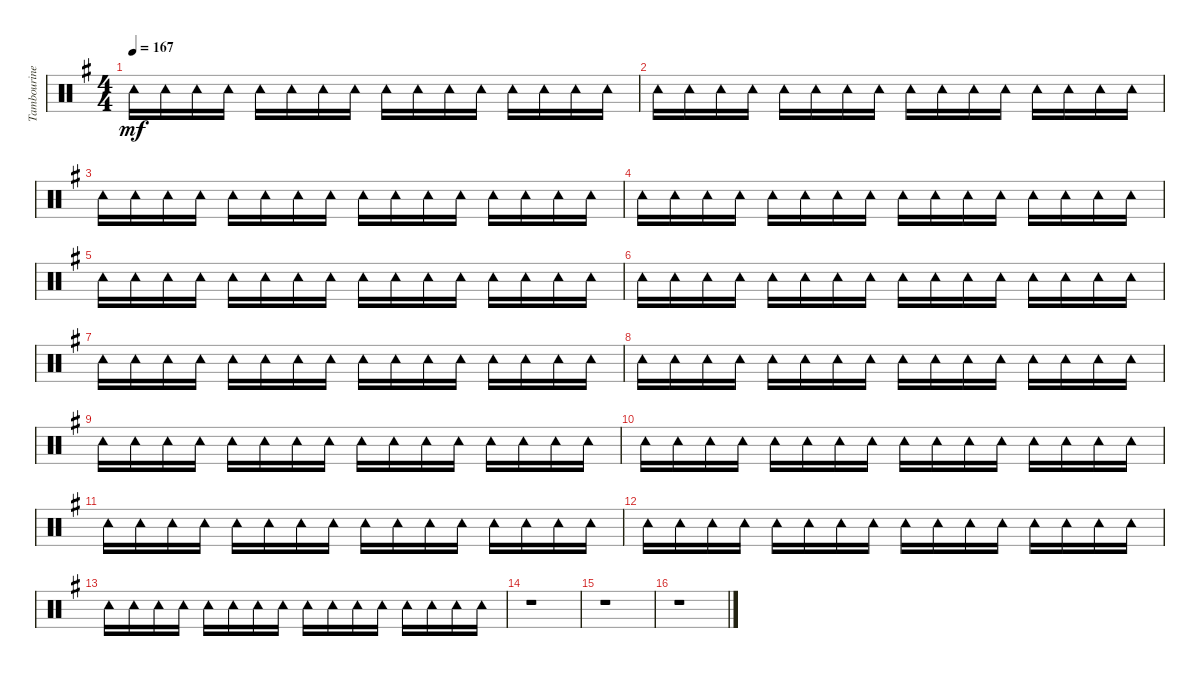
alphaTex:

\track ("Tambourine" "Tambourine") {instrument percussion}
\staff {score}
\articulation defaults
\ts (4 4)
\tempo 167
\clef neutral
\ks eminor "Tambourine (hit)".16{dy mf} "Tambourine (hit)".16 "Tambourine (hit)".16 "Tambourine (hit)".16 "Tambourine (hit)".16 "Tambourine (hit)".16 "Tambourine (hit)".16 "Tambourine (hit)".16 "Tambourine (hit)".16 "Tambourine (hit)".16 "Tambourine (hit)".16 "Tambourine (hit)".16 "Tambourine (hit)".16 "Tambourine (hit)".16 "Tambourine (hit)".16 "Tambourine (hit)".16
|
"Tambourine (hit)".16 "Tambourine (hit)".16 "Tambourine (hit)".16 "Tambourine (hit)".16 "Tambourine (hit)".16 "Tambourine (hit)".16 "Tambourine (hit)".16 "Tambourine (hit)".16 "Tambourine (hit)".16 "Tambourine (hit)".16 "Tambourine (hit)".16 "Tambourine (hit)".16 "Tambourine (hit)".16 "Tambourine (hit)".16 "Tambourine (hit)".16 "Tambourine (hit)".16 |
"Tambourine (hit)".16 "Tambourine (hit)".16 "Tambourine (hit)".16 "Tambourine (hit)".16 "Tambourine (hit)".16 "Tambourine (hit)".16 "Tambourine (hit)".16 "Tambourine (hit)".16 "Tambourine (hit)".16 "Tambourine (hit)".16 "Tambourine (hit)".16 "Tambourine (hit)".16 "Tambourine (hit)".16 "Tambourine (hit)".16 "Tambourine (hit)".16 "Tambourine (hit)".16 |
"Tambourine (hit)".16 "Tambourine (hit)".16 "Tambourine (hit)".16 "Tambourine (hit)".16 "Tambourine (hit)".16 "Tambourine (hit)".16 "Tambourine (hit)".16 "Tambourine (hit)".16 "Tambourine (hit)".16 "Tambourine (hit)".16 "Tambourine (hit)".16 "Tambourine (hit)".16 "Tambourine (hit)".16 "Tambourine (hit)".16 "Tambourine (hit)".16 "Tambourine (hit)".16 |
"Tambourine (hit)".16 "Tambourine (hit)".16 "Tambourine (hit)".16 "Tambourine (hit)".16 "Tambourine (hit)".16 "Tambourine (hit)".16 "Tambourine (hit)".16 "Tambourine (hit)".16 "Tambourine (hit)".16 "Tambourine (hit)".16 "Tambourine (hit)".16 "Tambourine (hit)".16 "Tambourine (hit)".16 "Tambourine (hit)".16 "Tambourine (hit)".16 "Tambourine (hit)".16 |
"Tambourine (hit)".16 "Tambourine (hit)".16 "Tambourine (hit)".16 "Tambourine (hit)".16 "Tambourine (hit)".16 "Tambourine (hit)".16 "Tambourine (hit)".16 "Tambourine (hit)".16 "Tambourine (hit)".16 "Tambourine (hit)".16 "Tambourine (hit)".16 "Tambourine (hit)".16 "Tambourine (hit)".16 "Tambourine (hit)".16 "Tambourine (hit)".16 "Tambourine (hit)".16 |
"Tambourine (hit)".16 "Tambourine (hit)".16 "Tambourine (hit)".16 "Tambourine (hit)".16 "Tambourine (hit)".16 "Tambourine (hit)".16 "Tambourine (hit)".16 "Tambourine (hit)".16 "Tambourine (hit)".16 "Tambourine (hit)".16 "Tambourine (hit)".16 "Tambourine (hit)".16 "Tambourine (hit)".16 "Tambourine (hit)".16 "Tambourine (hit)".16 "Tambourine (hit)".16 |
"Tambourine (hit)".16 "Tambourine (hit)".16 "Tambourine (hit)".16 "Tambourine (hit)".16 "Tambourine (hit)".16 "Tambourine (hit)".16 "Tambourine (hit)".16 "Tambourine (hit)".16 "Tambourine (hit)".16 "Tambourine (hit)".16 "Tambourine (hit)".16 "Tambourine (hit)".16 "Tambourine (hit)".16 "Tambourine (hit)".16 "Tambourine (hit)".16 "Tambourine (hit)".16 |
"Tambourine (hit)".16 "Tambourine (hit)".16 "Tambourine (hit)".16 "Tambourine (hit)".16 "Tambourine (hit)".16 "Tambourine (hit)".16 "Tambourine (hit)".16 "Tambourine (hit)".16 "Tambourine (hit)".16 "Tambourine (hit)".16 "Tambourine (hit)".16 "Tambourine (hit)".16 "Tambourine (hit)".16 "Tambourine (hit)".16 "Tambourine (hit)".16 "Tambourine (hit)".16 |
"Tambourine (hit)".16 "Tambourine (hit)".16 "Tambourine (hit)".16 "Tambourine (hit)".16 "Tambourine (hit)".16 "Tambourine (hit)".16 "Tambourine (hit)".16 "Tambourine (hit)".16 "Tambourine (hit)".16 "Tambourine (hit)".16 "Tambourine (hit)".16 "Tambourine (hit)".16 "Tambourine (hit)".16 "Tambourine (hit)".16 "Tambourine (hit)".16 "Tambourine (hit)".16 |
"Tambourine (hit)".16 "Tambourine (hit)".16 "Tambourine (hit)".16 "Tambourine (hit)".16 "Tambourine (hit)".16 "Tambourine (hit)".16 "Tambourine (hit)".16 "Tambourine (hit)".16 "Tambourine (hit)".16 "Tambourine (hit)".16 "Tambourine (hit)".16 "Tambourine (hit)".16 "Tambourine (hit)".16 "Tambourine (hit)".16 "Tambourine (hit)".16 "Tambourine (hit)".16 |
"Tambourine (hit)".16 "Tambourine (hit)".16 "Tambourine (hit)".16 "Tambourine (hit)".16 "Tambourine (hit)".16 "Tambourine (hit)".16 "Tambourine (hit)".16 "Tambourine (hit)".16 "Tambourine (hit)".16 "Tambourine (hit)".16 "Tambourine (hit)".16 "Tambourine (hit)".16 "Tambourine (hit)".16 "Tambourine (hit)".16 "Tambourine (hit)".16 "Tambourine (hit)".16 |
"Tambourine (hit)".16 "Tambourine (hit)".16 "Tambourine (hit)".16 "Tambourine (hit)".16 "Tambourine (hit)".16 "Tambourine (hit)".16 "Tambourine (hit)".16 "Tambourine (hit)".16 "Tambourine (hit)".16 "Tambourine (hit)".16 "Tambourine (hit)".16 "Tambourine (hit)".16 "Tambourine (hit)".16 "Tambourine (hit)".16 "Tambourine (hit)".16 "Tambourine (hit)".16 |
r.1 |
r.1 |
r.1
